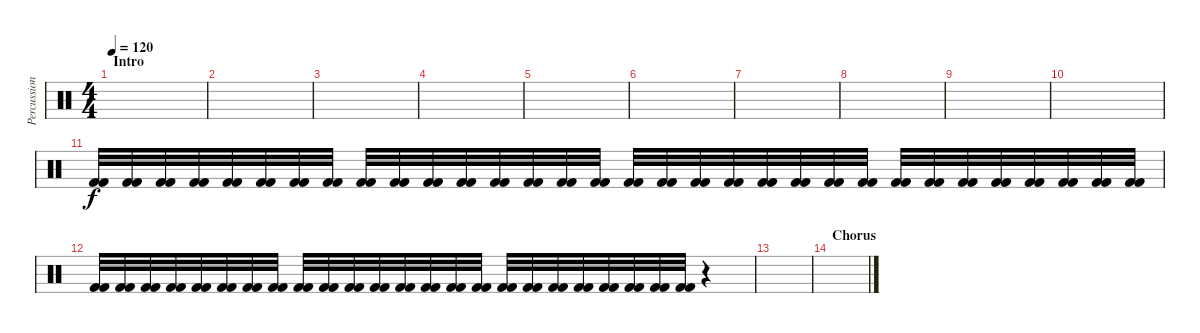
\track ("Percussions" "Percussion") {instrument percussion}
\staff {score}
\articulation defaults
\ts (4 4)
\section ("" "Intro")
\tempo 120
\clef neutral
\ks c
|
|
|
|
|
|
|
|
|
|
("Kick (hit) 2" "Kick (hit) 2").32 ("Kick (hit) 2" "Kick (hit) 2").32 ("Kick (hit) 2" "Kick (hit) 2").32 ("Kick (hit) 2" "Kick (hit) 2").32 ("Kick (hit) 2" "Kick (hit) 2").32 ("Kick (hit) 2" "Kick (hit) 2").32 ("Kick (hit) 2" "Kick (hit) 2").32 ("Kick (hit) 2" "Kick (hit) 2").32 ("Kick (hit) 2" "Kick (hit) 2").32 ("Kick (hit) 2" "Kick (hit) 2").32 ("Kick (hit) 2" "Kick (hit) 2").32 ("Kick (hit) 2" "Kick (hit) 2").32 ("Kick (hit) 2" "Kick (hit) 2").32 ("Kick (hit) 2" "Kick (hit) 2").32 ("Kick (hit) 2" "Kick (hit) 2").32 ("Kick (hit) 2" "Kick (hit) 2").32 ("Kick (hit) 2" "Kick (hit) 2").32 ("Kick (hit) 2" "Kick (hit) 2").32 ("Kick (hit) 2" "Kick (hit) 2").32 ("Kick (hit) 2" "Kick (hit) 2").32 ("Kick (hit) 2" "Kick (hit) 2").32 ("Kick (hit) 2" "Kick (hit) 2").32 ("Kick (hit) 2" "Kick (hit) 2").32 ("Kick (hit) 2" "Kick (hit) 2").32 ("Kick (hit) 2" "Kick (hit) 2").32 ("Kick (hit) 2" "Kick (hit) 2").32 ("Kick (hit) 2" "Kick (hit) 2").32 ("Kick (hit) 2" "Kick (hit) 2").32 ("Kick (hit) 2" "Kick (hit) 2").32 ("Kick (hit) 2" "Kick (hit) 2").32 ("Kick (hit) 2" "Kick (hit) 2").32 ("Kick (hit) 2" "Kick (hit) 2").32 |
("Kick (hit) 2" "Kick (hit) 2").32 ("Kick (hit) 2" "Kick (hit) 2").32 ("Kick (hit) 2" "Kick (hit) 2").32 ("Kick (hit) 2" "Kick (hit) 2").32 ("Kick (hit) 2" "Kick (hit) 2").32 ("Kick (hit) 2" "Kick (hit) 2").32 ("Kick (hit) 2" "Kick (hit) 2").32 ("Kick (hit) 2" "Kick (hit) 2").32 ("Kick (hit) 2" "Kick (hit) 2").32 ("Kick (hit) 2" "Kick (hit) 2").32 ("Kick (hit) 2" "Kick (hit) 2").32 ("Kick (hit) 2" "Kick (hit) 2").32 ("Kick (hit) 2" "Kick (hit) 2").32 ("Kick (hit) 2" "Kick (hit) 2").32 ("Kick (hit) 2" "Kick (hit) 2").32 ("Kick (hit) 2" "Kick (hit) 2").32 ("Kick (hit) 2" "Kick (hit) 2").32 ("Kick (hit) 2" "Kick (hit) 2").32 ("Kick (hit) 2" "Kick (hit) 2").32 ("Kick (hit) 2" "Kick (hit) 2").32 ("Kick (hit) 2" "Kick (hit) 2").32 ("Kick (hit) 2" "Kick (hit) 2").32 ("Kick (hit) 2" "Kick (hit) 2").32 ("Kick (hit) 2" "Kick (hit) 2").32 r.4 |
|
\section ("" "Chorus")
